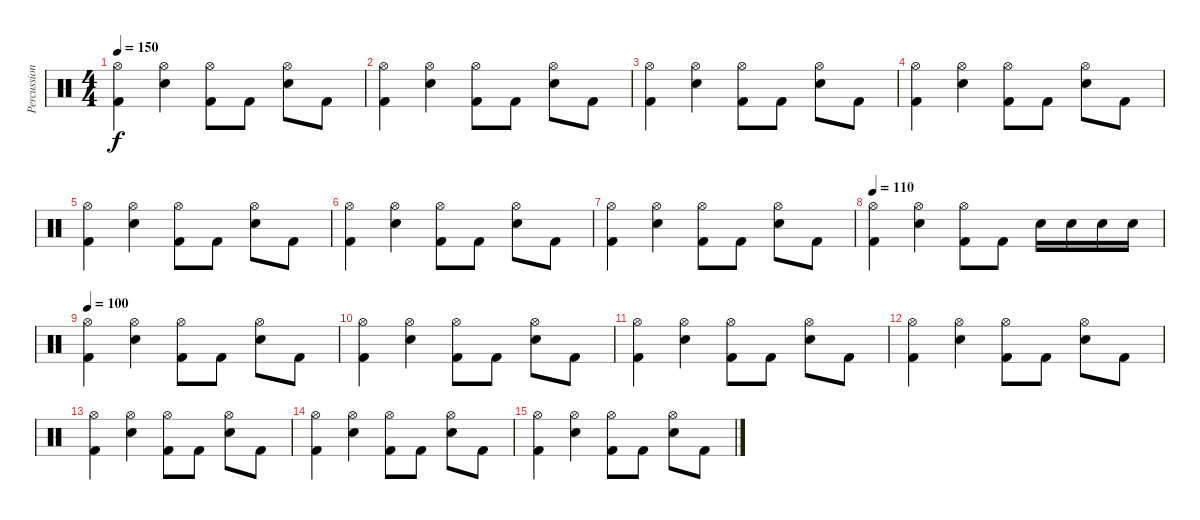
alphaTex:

\track ("Percussions" "Percussion") {instrument percussion}
\staff {score}
\articulation defaults
\ts (4 4)
\tempo 150
\clef neutral
\ks c
("Kick (hit) 2" "Hi-Hat (open)").4{dy f} ("Snare (hit) 2" "Hi-Hat (open)").4 ("Kick (hit) 2" "Hi-Hat (open)").8 "Kick (hit) 2".8 ("Snare (hit) 2" "Hi-Hat (open)").8 "Kick (hit) 2".8 |
("Kick (hit) 2" "Hi-Hat (open)").4 ("Snare (hit) 2" "Hi-Hat (open)").4 ("Kick (hit) 2" "Hi-Hat (open)").8 "Kick (hit) 2".8 ("Snare (hit) 2" "Hi-Hat (open)").8 "Kick (hit) 2".8 |
("Kick (hit) 2" "Hi-Hat (open)").4 ("Snare (hit) 2" "Hi-Hat (open)").4 ("Kick (hit) 2" "Hi-Hat (open)").8 "Kick (hit) 2".8 ("Snare (hit) 2" "Hi-Hat (open)").8 "Kick (hit) 2".8 |
("Kick (hit) 2" "Hi-Hat (open)").4 ("Snare (hit) 2" "Hi-Hat (open)").4 ("Kick (hit) 2" "Hi-Hat (open)").8 "Kick (hit) 2".8 ("Snare (hit) 2" "Hi-Hat (open)").8 "Kick (hit) 2".8 |
("Kick (hit) 2" "Hi-Hat (open)").4 ("Snare (hit) 2" "Hi-Hat (open)").4 ("Kick (hit) 2" "Hi-Hat (open)").8 "Kick (hit) 2".8 ("Snare (hit) 2" "Hi-Hat (open)").8 "Kick (hit) 2".8 |
("Kick (hit) 2" "Hi-Hat (open)").4 ("Snare (hit) 2" "Hi-Hat (open)").4 ("Kick (hit) 2" "Hi-Hat (open)").8 "Kick (hit) 2".8 ("Snare (hit) 2" "Hi-Hat (open)").8 "Kick (hit) 2".8 |
("Kick (hit) 2" "Hi-Hat (open)").4 ("Snare (hit) 2" "Hi-Hat (open)").4 ("Kick (hit) 2" "Hi-Hat (open)").8 "Kick (hit) 2".8 ("Snare (hit) 2" "Hi-Hat (open)").8 "Kick (hit) 2".8 |
\tempo 110
("Kick (hit) 2" "Hi-Hat (open)").4 ("Snare (hit) 2" "Hi-Hat (open)").4 ("Kick (hit) 2" "Hi-Hat (open)").8 "Kick (hit) 2".8 "Snare (hit) 2".16 "Snare (hit) 2".16 "Snare (hit) 2".16 "Snare (hit) 2".16 |
\tempo 100
("Kick (hit) 2" "Hi-Hat (open)").4 ("Snare (hit) 2" "Hi-Hat (open)").4 ("Kick (hit) 2" "Hi-Hat (open)").8 "Kick (hit) 2".8 ("Snare (hit) 2" "Hi-Hat (open)").8 "Kick (hit) 2".8 |
("Kick (hit) 2" "Hi-Hat (open)").4 ("Snare (hit) 2" "Hi-Hat (open)").4 ("Kick (hit) 2" "Hi-Hat (open)").8 "Kick (hit) 2".8 ("Snare (hit) 2" "Hi-Hat (open)").8 "Kick (hit) 2".8 |
("Kick (hit) 2" "Hi-Hat (open)").4 ("Snare (hit) 2" "Hi-Hat (open)").4 ("Kick (hit) 2" "Hi-Hat (open)").8 "Kick (hit) 2".8 ("Snare (hit) 2" "Hi-Hat (open)").8 "Kick (hit) 2".8 |
("Kick (hit) 2" "Hi-Hat (open)").4 ("Snare (hit) 2" "Hi-Hat (open)").4 ("Kick (hit) 2" "Hi-Hat (open)").8 "Kick (hit) 2".8 ("Snare (hit) 2" "Hi-Hat (open)").8 "Kick (hit) 2".8 |
("Kick (hit) 2" "Hi-Hat (open)").4 ("Snare (hit) 2" "Hi-Hat (open)").4 ("Kick (hit) 2" "Hi-Hat (open)").8 "Kick (hit) 2".8 ("Snare (hit) 2" "Hi-Hat (open)").8 "Kick (hit) 2".8 |
("Kick (hit) 2" "Hi-Hat (open)").4 ("Snare (hit) 2" "Hi-Hat (open)").4 ("Kick (hit) 2" "Hi-Hat (open)").8 "Kick (hit) 2".8 ("Snare (hit) 2" "Hi-Hat (open)").8 "Kick (hit) 2".8 |
("Kick (hit) 2" "Hi-Hat (open)").4 ("Snare (hit) 2" "Hi-Hat (open)").4 ("Kick (hit) 2" "Hi-Hat (open)").8 "Kick (hit) 2".8 ("Snare (hit) 2" "Hi-Hat (open)").8 "Kick (hit) 2".8
